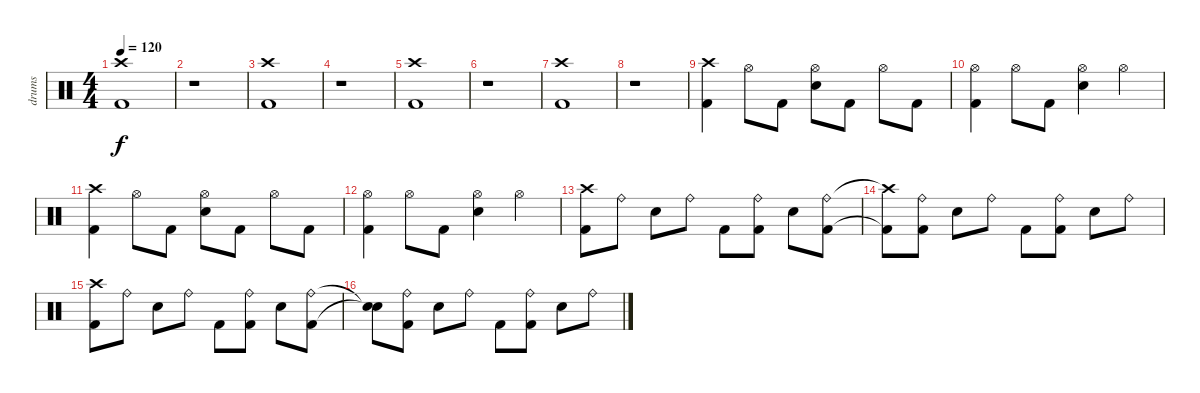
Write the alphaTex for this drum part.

\track ("drums" "drums") {instrument percussion}
\staff {score}
\articulation defaults
\ts (4 4)
\tempo 120
\clef neutral
\ks c
("Kick (hit) 2" "Crash high (hit)").1{dy f} |
r.1 |
("Kick (hit) 2" "Crash high (hit)").1 |
r.1 |
("Kick (hit) 2" "Crash high (hit)").1 |
r.1 |
("Kick (hit) 2" "Crash high (hit)").1 |
r.1 |
("Crash high (hit)" "Kick (hit) 2").4 "Hi-Hat (open)".8 "Kick (hit) 2".8 ("Hi-Hat (open)" "Snare (hit) 2").8 "Kick (hit) 2".8 "Hi-Hat (open)".8 "Kick (hit) 2".8 |
("Hi-Hat (open)" "Kick (hit) 2").4 "Hi-Hat (open)".8 "Kick (hit) 2".8 ("Hi-Hat (open)" "Snare (hit) 2").4 "Hi-Hat (open)".4 |
("Crash high (hit)" "Kick (hit) 2").4 "Hi-Hat (open)".8 "Kick (hit) 2".8 ("Hi-Hat (open)" "Snare (hit) 2").8 "Kick (hit) 2".8 "Hi-Hat (open)".8 "Kick (hit) 2".8 |
("Hi-Hat (open)" "Kick (hit) 2").4 "Hi-Hat (open)".8 "Kick (hit) 2".8 ("Hi-Hat (open)" "Snare (hit) 2").4 "Hi-Hat (open)".4 |
("Crash high (hit)" "Kick (hit) 2").8 "Ride (bell)".8 "Snare (hit) 2".8 "Ride (bell)".8 "Kick (hit) 2".8 ("Ride (bell)" "Kick (hit) 2").8 "Snare (hit) 2".8 ("Ride (bell)" "Kick (hit) 2").8 |
("Crash high (hit)"{t} "Kick (hit) 2"{t}).8 ("Ride (bell)" "Kick (hit) 2").8 "Snare (hit) 2".8 "Ride (bell)".8 "Kick (hit) 2".8 ("Ride (bell)" "Kick (hit) 2").8 "Snare (hit) 2".8 "Ride (bell)".8 |
("Crash high (hit)" "Kick (hit) 2").8 "Ride (bell)".8 "Snare (hit) 2".8 "Ride (bell)".8 "Kick (hit) 2".8 ("Ride (bell)" "Kick (hit) 2").8 "Snare (hit) 2".8 ("Ride (bell)" "Kick (hit) 2").8 |
("Snare (hit)"{t} "Snare (hit)"{t}).8 ("Ride (bell)" "Kick (hit) 2").8 "Snare (hit) 2".8 "Ride (bell)".8 "Kick (hit) 2".8 ("Ride (bell)" "Kick (hit) 2").8 "Snare (hit) 2".8 "Ride (bell)".8
